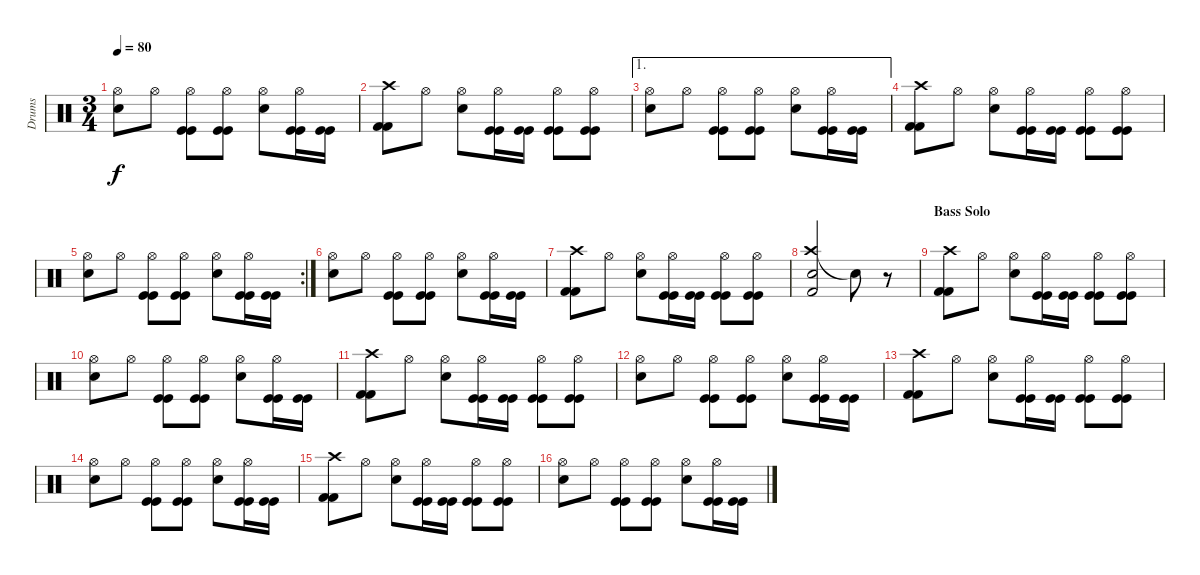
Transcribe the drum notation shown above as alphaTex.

\track ("Drums" "Drums") {instrument percussion}
\staff {score}
\articulation defaults
\ts (3 4)
\tempo 80
\clef neutral
\ks c
("Hi-Hat (open)" "Electric Snare (hit)").8{dy f} "Hi-Hat (open)".8 ("Hi-Hat (open)" "Kick (hit)" "Kick (hit)").8 ("Hi-Hat (open)" "Kick (hit)" "Kick (hit)").8 ("Hi-Hat (open)" "Electric Snare (hit)").8 ("Hi-Hat (open)" "Kick (hit)" "Kick (hit)").16 ("Kick (hit)" "Kick (hit)").16 |
("Crash high (hit)" "Kick (hit) 2" "Kick (hit) 2").8 "Hi-Hat (open)".8 ("Hi-Hat (open)" "Electric Snare (hit)").8 ("Hi-Hat (open)" "Kick (hit)" "Kick (hit)").16 ("Kick (hit)" "Kick (hit)").16 ("Hi-Hat (open)" "Kick (hit)" "Kick (hit)").8 ("Hi-Hat (open)" "Kick (hit)" "Kick (hit)").8 |
\ae 1
("Hi-Hat (open)" "Electric Snare (hit)").8 "Hi-Hat (open)".8 ("Hi-Hat (open)" "Kick (hit)" "Kick (hit)").8 ("Hi-Hat (open)" "Kick (hit)" "Kick (hit)").8 ("Hi-Hat (open)" "Electric Snare (hit)").8 ("Hi-Hat (open)" "Kick (hit)" "Kick (hit)").16 ("Kick (hit)" "Kick (hit)").16 |
("Crash high (hit)" "Kick (hit) 2" "Kick (hit) 2").8 "Hi-Hat (open)".8 ("Hi-Hat (open)" "Electric Snare (hit)").8 ("Hi-Hat (open)" "Kick (hit)" "Kick (hit)").16 ("Kick (hit)" "Kick (hit)").16 ("Hi-Hat (open)" "Kick (hit)" "Kick (hit)").8 ("Hi-Hat (open)" "Kick (hit)" "Kick (hit)").8 |
\rc 2
("Hi-Hat (open)" "Electric Snare (hit)").8 "Hi-Hat (open)".8 ("Hi-Hat (open)" "Kick (hit)" "Kick (hit)").8 ("Hi-Hat (open)" "Kick (hit)" "Kick (hit)").8 ("Hi-Hat (open)" "Electric Snare (hit)").8 ("Hi-Hat (open)" "Kick (hit)" "Kick (hit)").16 ("Kick (hit)" "Kick (hit)").16 |
("Hi-Hat (open)" "Electric Snare (hit)").8 "Hi-Hat (open)".8 ("Hi-Hat (open)" "Kick (hit)" "Kick (hit)").8 ("Hi-Hat (open)" "Kick (hit)" "Kick (hit)").8 ("Hi-Hat (open)" "Electric Snare (hit)").8 ("Hi-Hat (open)" "Kick (hit)" "Kick (hit)").16 ("Kick (hit)" "Kick (hit)").16 |
("Crash high (hit)" "Kick (hit) 2" "Kick (hit) 2").8 "Hi-Hat (open)".8 ("Hi-Hat (open)" "Electric Snare (hit)").8 ("Hi-Hat (open)" "Kick (hit)" "Kick (hit)").16 ("Kick (hit)" "Kick (hit)").16 ("Hi-Hat (open)" "Kick (hit)" "Kick (hit)").8 ("Hi-Hat (open)" "Kick (hit)" "Kick (hit)").8 |
("Crash high (hit)" "Electric Snare (hit)" "Kick (hit) 2").2 "Snare (hit)"{t}.8 r.8 |
\section ("" "Bass Solo")
("Crash high (hit)" "Kick (hit) 2" "Kick (hit) 2").8 "Hi-Hat (open)".8 ("Hi-Hat (open)" "Electric Snare (hit)").8 ("Hi-Hat (open)" "Kick (hit)" "Kick (hit)").16 ("Kick (hit)" "Kick (hit)").16 ("Hi-Hat (open)" "Kick (hit)" "Kick (hit)").8 ("Hi-Hat (open)" "Kick (hit)" "Kick (hit)").8 |
("Hi-Hat (open)" "Electric Snare (hit)").8 "Hi-Hat (open)".8 ("Hi-Hat (open)" "Kick (hit)" "Kick (hit)").8 ("Hi-Hat (open)" "Kick (hit)" "Kick (hit)").8 ("Hi-Hat (open)" "Electric Snare (hit)").8 ("Hi-Hat (open)" "Kick (hit)" "Kick (hit)").16 ("Kick (hit)" "Kick (hit)").16 |
("Crash high (hit)" "Kick (hit) 2" "Kick (hit) 2").8 "Hi-Hat (open)".8 ("Hi-Hat (open)" "Electric Snare (hit)").8 ("Hi-Hat (open)" "Kick (hit)" "Kick (hit)").16 ("Kick (hit)" "Kick (hit)").16 ("Hi-Hat (open)" "Kick (hit)" "Kick (hit)").8 ("Hi-Hat (open)" "Kick (hit)" "Kick (hit)").8 |
("Hi-Hat (open)" "Electric Snare (hit)").8 "Hi-Hat (open)".8 ("Hi-Hat (open)" "Kick (hit)" "Kick (hit)").8 ("Hi-Hat (open)" "Kick (hit)" "Kick (hit)").8 ("Hi-Hat (open)" "Electric Snare (hit)").8 ("Hi-Hat (open)" "Kick (hit)" "Kick (hit)").16 ("Kick (hit)" "Kick (hit)").16 |
("Crash high (hit)" "Kick (hit) 2" "Kick (hit) 2").8 "Hi-Hat (open)".8 ("Hi-Hat (open)" "Electric Snare (hit)").8 ("Hi-Hat (open)" "Kick (hit)" "Kick (hit)").16 ("Kick (hit)" "Kick (hit)").16 ("Hi-Hat (open)" "Kick (hit)" "Kick (hit)").8 ("Hi-Hat (open)" "Kick (hit)" "Kick (hit)").8 |
("Hi-Hat (open)" "Electric Snare (hit)").8 "Hi-Hat (open)".8 ("Hi-Hat (open)" "Kick (hit)" "Kick (hit)").8 ("Hi-Hat (open)" "Kick (hit)" "Kick (hit)").8 ("Hi-Hat (open)" "Electric Snare (hit)").8 ("Hi-Hat (open)" "Kick (hit)" "Kick (hit)").16 ("Kick (hit)" "Kick (hit)").16 |
("Crash high (hit)" "Kick (hit) 2" "Kick (hit) 2").8 "Hi-Hat (open)".8 ("Hi-Hat (open)" "Electric Snare (hit)").8 ("Hi-Hat (open)" "Kick (hit)" "Kick (hit)").16 ("Kick (hit)" "Kick (hit)").16 ("Hi-Hat (open)" "Kick (hit)" "Kick (hit)").8 ("Hi-Hat (open)" "Kick (hit)" "Kick (hit)").8 |
("Hi-Hat (open)" "Electric Snare (hit)").8 "Hi-Hat (open)".8 ("Hi-Hat (open)" "Kick (hit)" "Kick (hit)").8 ("Hi-Hat (open)" "Kick (hit)" "Kick (hit)").8 ("Hi-Hat (open)" "Electric Snare (hit)").8 ("Hi-Hat (open)" "Kick (hit)" "Kick (hit)").16 ("Kick (hit)" "Kick (hit)").16
